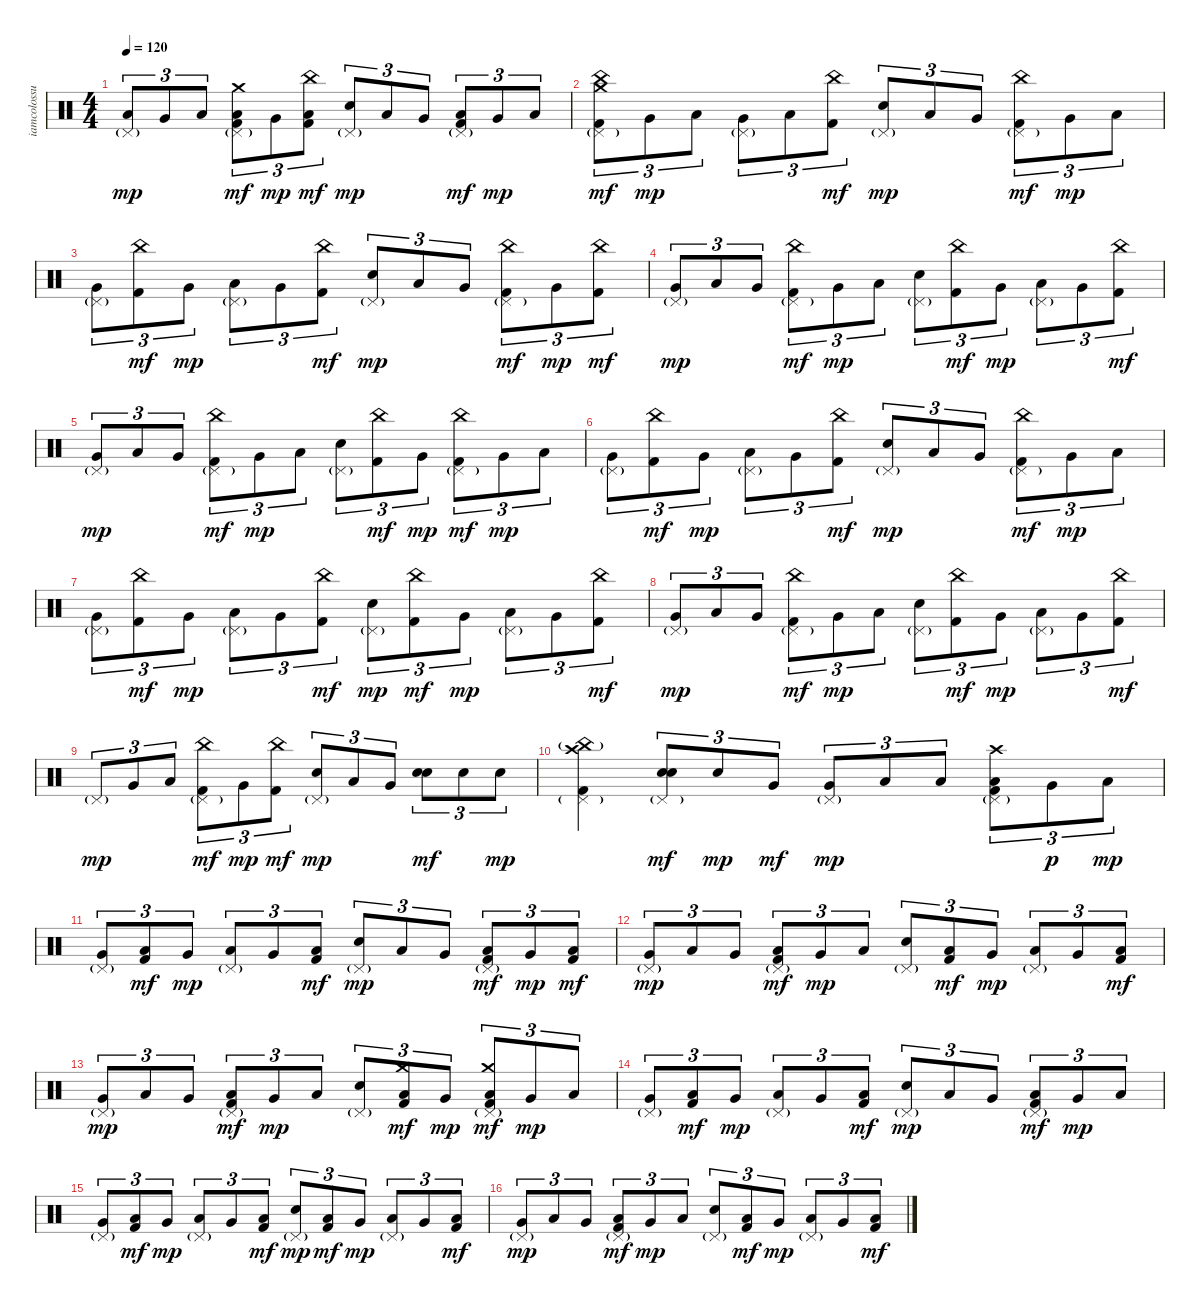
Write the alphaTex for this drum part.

\track ("iamcolossus(Thomas Haake)" "iamcolossu") {instrument percussion}
\staff {score}
\articulation defaults
\ts (4 4)
\tempo 120
\clef neutral
\ks c
("Pedal Hi-Hat (hit)"{g} "Low Floor Tom (hit)").8{tu (3 2) dy mp} "Very Low Tom (hit)".8{tu (3 2)} "Low Floor Tom (hit)".8{tu (3 2)} ("Pedal Hi-Hat (hit)"{g} "Crash medium (hit)" "Low Floor Tom (hit)" "Kick (hit) 2").8{tu (3 2) dy mf} "Very Low Tom (hit)".8{tu (3 2) dy mp} ("China (hit)" "Low Floor Tom (hit)" "Kick (hit) 2").8{tu (3 2) dy mf} ("Pedal Hi-Hat (hit)"{g} "Electric Snare (hit)").8{tu (3 2) dy mp} "Low Floor Tom (hit)".8{tu (3 2)} "Very Low Tom (hit)".8{tu (3 2)} ("Pedal Hi-Hat (hit)"{g} "Low Floor Tom (hit)" "Kick (hit) 2").8{tu (3 2) dy mf} "Very Low Tom (hit)".8{tu (3 2) dy mp} "Low Floor Tom (hit)".8{tu (3 2)} |
("Pedal Hi-Hat (hit)"{g} "Crash medium (hit)" "China (hit)" "Kick (hit) 2").8{tu (3 2) dy mf} "Very Low Tom (hit)".8{tu (3 2) dy mp} "Low Floor Tom (hit)".8{tu (3 2)} ("Pedal Hi-Hat (hit)"{g} "Very Low Tom (hit)").8{tu (3 2)} "Low Floor Tom (hit)".8{tu (3 2)} ("China (hit)" "Kick (hit) 2").8{tu (3 2) dy mf} ("Pedal Hi-Hat (hit)"{g} "Electric Snare (hit)").8{tu (3 2) dy mp} "Low Floor Tom (hit)".8{tu (3 2)} "Very Low Tom (hit)".8{tu (3 2)} ("Pedal Hi-Hat (hit)"{g} "China (hit)" "Kick (hit) 2").8{tu (3 2) dy mf} "Very Low Tom (hit)".8{tu (3 2) dy mp} "Low Floor Tom (hit)".8{tu (3 2)} |
("Pedal Hi-Hat (hit)"{g} "Very Low Tom (hit)").8{tu (3 2)} ("China (hit)" "Kick (hit) 2").8{tu (3 2) dy mf} "Very Low Tom (hit)".8{tu (3 2) dy mp} ("Pedal Hi-Hat (hit)"{g} "Low Floor Tom (hit)").8{tu (3 2)} "Very Low Tom (hit)".8{tu (3 2)} ("China (hit)" "Kick (hit) 2").8{tu (3 2) dy mf} ("Pedal Hi-Hat (hit)"{g} "Electric Snare (hit)").8{tu (3 2) dy mp} "Low Floor Tom (hit)".8{tu (3 2)} "Very Low Tom (hit)".8{tu (3 2)} ("Pedal Hi-Hat (hit)"{g} "China (hit)" "Kick (hit) 2").8{tu (3 2) dy mf} "Very Low Tom (hit)".8{tu (3 2) dy mp} ("China (hit)" "Kick (hit) 2").8{tu (3 2) dy mf} |
("Pedal Hi-Hat (hit)"{g} "Very Low Tom (hit)").8{tu (3 2) dy mp} "Low Floor Tom (hit)".8{tu (3 2)} "Very Low Tom (hit)".8{tu (3 2)} ("Pedal Hi-Hat (hit)"{g} "China (hit)" "Kick (hit) 2").8{tu (3 2) dy mf} "Very Low Tom (hit)".8{tu (3 2) dy mp} "Low Floor Tom (hit)".8{tu (3 2)} ("Pedal Hi-Hat (hit)"{g} "Electric Snare (hit)").8{tu (3 2)} ("China (hit)" "Kick (hit) 2").8{tu (3 2) dy mf} "Very Low Tom (hit)".8{tu (3 2) dy mp} ("Pedal Hi-Hat (hit)"{g} "Low Floor Tom (hit)").8{tu (3 2)} "Very Low Tom (hit)".8{tu (3 2)} ("China (hit)" "Kick (hit) 2").8{tu (3 2) dy mf} |
("Pedal Hi-Hat (hit)"{g} "Very Low Tom (hit)").8{tu (3 2) dy mp} "Low Floor Tom (hit)".8{tu (3 2)} "Very Low Tom (hit)".8{tu (3 2)} ("Pedal Hi-Hat (hit)"{g} "China (hit)" "Kick (hit) 2").8{tu (3 2) dy mf} "Very Low Tom (hit)".8{tu (3 2) dy mp} "Low Floor Tom (hit)".8{tu (3 2)} ("Pedal Hi-Hat (hit)"{g} "Electric Snare (hit)").8{tu (3 2)} ("China (hit)" "Kick (hit) 2").8{tu (3 2) dy mf} "Very Low Tom (hit)".8{tu (3 2) dy mp} ("Pedal Hi-Hat (hit)"{g} "China (hit)" "Kick (hit) 2").8{tu (3 2) dy mf} "Very Low Tom (hit)".8{tu (3 2) dy mp} "Low Floor Tom (hit)".8{tu (3 2)} |
("Pedal Hi-Hat (hit)"{g} "Very Low Tom (hit)").8{tu (3 2)} ("China (hit)" "Kick (hit) 2").8{tu (3 2) dy mf} "Very Low Tom (hit)".8{tu (3 2) dy mp} ("Pedal Hi-Hat (hit)"{g} "Low Floor Tom (hit)").8{tu (3 2)} "Very Low Tom (hit)".8{tu (3 2)} ("China (hit)" "Kick (hit) 2").8{tu (3 2) dy mf} ("Pedal Hi-Hat (hit)"{g} "Electric Snare (hit)").8{tu (3 2) dy mp} "Low Floor Tom (hit)".8{tu (3 2)} "Very Low Tom (hit)".8{tu (3 2)} ("Pedal Hi-Hat (hit)"{g} "China (hit)" "Kick (hit) 2").8{tu (3 2) dy mf} "Very Low Tom (hit)".8{tu (3 2) dy mp} "Low Floor Tom (hit)".8{tu (3 2)} |
("Pedal Hi-Hat (hit)"{g} "Very Low Tom (hit)").8{tu (3 2)} ("China (hit)" "Kick (hit) 2").8{tu (3 2) dy mf} "Very Low Tom (hit)".8{tu (3 2) dy mp} ("Pedal Hi-Hat (hit)"{g} "Low Floor Tom (hit)").8{tu (3 2)} "Very Low Tom (hit)".8{tu (3 2)} ("China (hit)" "Kick (hit) 2").8{tu (3 2) dy mf} ("Pedal Hi-Hat (hit)"{g} "Electric Snare (hit)").8{tu (3 2) dy mp} ("China (hit)" "Kick (hit) 2").8{tu (3 2) dy mf} "Very Low Tom (hit)".8{tu (3 2) dy mp} ("Pedal Hi-Hat (hit)"{g} "Low Floor Tom (hit)").8{tu (3 2)} "Very Low Tom (hit)".8{tu (3 2)} ("China (hit)" "Kick (hit) 2").8{tu (3 2) dy mf} |
("Pedal Hi-Hat (hit)"{g} "Very Low Tom (hit)").8{tu (3 2) dy mp} "Low Floor Tom (hit)".8{tu (3 2)} "Very Low Tom (hit)".8{tu (3 2)} ("Pedal Hi-Hat (hit)"{g} "China (hit)" "Kick (hit) 2").8{tu (3 2) dy mf} "Very Low Tom (hit)".8{tu (3 2) dy mp} "Low Floor Tom (hit)".8{tu (3 2)} ("Pedal Hi-Hat (hit)"{g} "Electric Snare (hit)").8{tu (3 2)} ("China (hit)" "Kick (hit) 2").8{tu (3 2) dy mf} "Very Low Tom (hit)".8{tu (3 2) dy mp} ("Pedal Hi-Hat (hit)"{g} "Low Floor Tom (hit)").8{tu (3 2)} "Very Low Tom (hit)".8{tu (3 2)} ("China (hit)" "Kick (hit) 2").8{tu (3 2) dy mf} |
"Pedal Hi-Hat (hit)"{g}.8{tu (3 2) dy mp} "Very Low Tom (hit)".8{tu (3 2)} "Low Floor Tom (hit)".8{tu (3 2)} ("Pedal Hi-Hat (hit)"{g} "China (hit)" "Kick (hit) 2").8{tu (3 2) dy mf} "Very Low Tom (hit)".8{tu (3 2) dy mp} ("China (hit)" "Kick (hit) 2").8{tu (3 2) dy mf} ("Pedal Hi-Hat (hit)"{g} "Electric Snare (hit)").8{tu (3 2) dy mp} "Low Floor Tom (hit)".8{tu (3 2)} "Very Low Tom (hit)".8{tu (3 2)} ("Electric Snare (hit)" "Electric Snare (hit)").8{tu (3 2) bd 240 dy mf} "Electric Snare (hit)".8{tu (3 2)} "Electric Snare (hit)".8{tu (3 2) dy mp} |
("Pedal Hi-Hat (hit)"{g} "Crash high (hit)" "China (hit)"{g} "Kick (hit) 2").4 ("Pedal Hi-Hat (hit)"{g} "Electric Snare (hit)" "Electric Snare (hit)").8{tu (3 2) bd 120 dy mf} "Electric Snare (hit)".8{tu (3 2) dy mp} "Very Low Tom (hit)".8{tu (3 2) dy mf} ("Pedal Hi-Hat (hit)"{g} "Very Low Tom (hit)").8{tu (3 2) dy mp} "Low Floor Tom (hit)".8{tu (3 2)} "Low Floor Tom (hit)".8{tu (3 2)} ("Pedal Hi-Hat (hit)"{g} "Crash high (hit)" "Low Floor Tom (hit)" "Kick (hit) 2").8{tu (3 2)} "Very Low Tom (hit)".8{tu (3 2) dy p} "Low Floor Tom (hit)".8{tu (3 2) dy mp} |
("Pedal Hi-Hat (hit)"{g} "Very Low Tom (hit)").8{tu (3 2)} ("Low Floor Tom (hit)" "Kick (hit) 2").8{tu (3 2) dy mf} "Very Low Tom (hit)".8{tu (3 2) dy mp} ("Pedal Hi-Hat (hit)"{g} "Low Floor Tom (hit)").8{tu (3 2)} "Very Low Tom (hit)".8{tu (3 2)} ("Low Floor Tom (hit)" "Kick (hit) 2").8{tu (3 2) dy mf} ("Pedal Hi-Hat (hit)"{g} "Electric Snare (hit)").8{tu (3 2) dy mp} "Low Floor Tom (hit)".8{tu (3 2)} "Very Low Tom (hit)".8{tu (3 2)} ("Pedal Hi-Hat (hit)"{g} "Low Floor Tom (hit)" "Kick (hit) 2").8{tu (3 2) dy mf} "Very Low Tom (hit)".8{tu (3 2) dy mp} ("Low Floor Tom (hit)" "Kick (hit) 2").8{tu (3 2) dy mf} |
("Pedal Hi-Hat (hit)"{g} "Very Low Tom (hit)").8{tu (3 2) dy mp} "Low Floor Tom (hit)".8{tu (3 2)} "Very Low Tom (hit)".8{tu (3 2)} ("Pedal Hi-Hat (hit)"{g} "Low Floor Tom (hit)" "Kick (hit) 2").8{tu (3 2) dy mf} "Very Low Tom (hit)".8{tu (3 2) dy mp} "Low Floor Tom (hit)".8{tu (3 2)} ("Pedal Hi-Hat (hit)"{g} "Electric Snare (hit)").8{tu (3 2)} ("Low Floor Tom (hit)" "Kick (hit) 2").8{tu (3 2) dy mf} "Very Low Tom (hit)".8{tu (3 2) dy mp} ("Pedal Hi-Hat (hit)"{g} "Low Floor Tom (hit)").8{tu (3 2)} "Very Low Tom (hit)".8{tu (3 2)} ("Low Floor Tom (hit)" "Kick (hit) 2").8{tu (3 2) dy mf} |
("Pedal Hi-Hat (hit)"{g} "Very Low Tom (hit)").8{tu (3 2) dy mp} "Low Floor Tom (hit)".8{tu (3 2)} "Very Low Tom (hit)".8{tu (3 2)} ("Pedal Hi-Hat (hit)"{g} "Low Floor Tom (hit)" "Kick (hit) 2").8{tu (3 2) dy mf} "Very Low Tom (hit)".8{tu (3 2) dy mp} "Low Floor Tom (hit)".8{tu (3 2)} ("Pedal Hi-Hat (hit)"{g} "Electric Snare (hit)").8{tu (3 2)} ("Crash medium (hit)" "Low Floor Tom (hit)" "Kick (hit) 2").8{tu (3 2) dy mf} "Very Low Tom (hit)".8{tu (3 2) dy mp} ("Pedal Hi-Hat (hit)"{g} "Crash medium (hit)" "Low Floor Tom (hit)" "Kick (hit) 2").8{tu (3 2) dy mf} "Very Low Tom (hit)".8{tu (3 2) dy mp} "Low Floor Tom (hit)".8{tu (3 2)} |
("Pedal Hi-Hat (hit)"{g} "Very Low Tom (hit)").8{tu (3 2)} ("Low Floor Tom (hit)" "Kick (hit) 2").8{tu (3 2) dy mf} "Very Low Tom (hit)".8{tu (3 2) dy mp} ("Pedal Hi-Hat (hit)"{g} "Low Floor Tom (hit)").8{tu (3 2)} "Very Low Tom (hit)".8{tu (3 2)} ("Low Floor Tom (hit)" "Kick (hit) 2").8{tu (3 2) dy mf} ("Pedal Hi-Hat (hit)"{g} "Electric Snare (hit)").8{tu (3 2) dy mp} "Low Floor Tom (hit)".8{tu (3 2)} "Very Low Tom (hit)".8{tu (3 2)} ("Pedal Hi-Hat (hit)"{g} "Low Floor Tom (hit)" "Kick (hit) 2").8{tu (3 2) dy mf} "Very Low Tom (hit)".8{tu (3 2) dy mp} "Low Floor Tom (hit)".8{tu (3 2)} |
("Pedal Hi-Hat (hit)"{g} "Very Low Tom (hit)").8{tu (3 2)} ("Low Floor Tom (hit)" "Kick (hit) 2").8{tu (3 2) dy mf} "Very Low Tom (hit)".8{tu (3 2) dy mp} ("Pedal Hi-Hat (hit)"{g} "Low Floor Tom (hit)").8{tu (3 2)} "Very Low Tom (hit)".8{tu (3 2)} ("Low Floor Tom (hit)" "Kick (hit) 2").8{tu (3 2) dy mf} ("Pedal Hi-Hat (hit)"{g} "Electric Snare (hit)").8{tu (3 2) dy mp} ("Low Floor Tom (hit)" "Kick (hit) 2").8{tu (3 2) dy mf} "Very Low Tom (hit)".8{tu (3 2) dy mp} ("Pedal Hi-Hat (hit)"{g} "Low Floor Tom (hit)").8{tu (3 2)} "Very Low Tom (hit)".8{tu (3 2)} ("Low Floor Tom (hit)" "Kick (hit) 2").8{tu (3 2) dy mf} |
("Pedal Hi-Hat (hit)"{g} "Very Low Tom (hit)").8{tu (3 2) dy mp} "Low Floor Tom (hit)".8{tu (3 2)} "Very Low Tom (hit)".8{tu (3 2)} ("Pedal Hi-Hat (hit)"{g} "Low Floor Tom (hit)" "Kick (hit) 2").8{tu (3 2) dy mf} "Very Low Tom (hit)".8{tu (3 2) dy mp} "Low Floor Tom (hit)".8{tu (3 2)} ("Pedal Hi-Hat (hit)"{g} "Electric Snare (hit)").8{tu (3 2)} ("Low Floor Tom (hit)" "Kick (hit) 2").8{tu (3 2) dy mf} "Very Low Tom (hit)".8{tu (3 2) dy mp} ("Pedal Hi-Hat (hit)"{g} "Low Floor Tom (hit)").8{tu (3 2)} "Very Low Tom (hit)".8{tu (3 2)} ("Low Floor Tom (hit)" "Kick (hit) 2").8{tu (3 2) dy mf}
